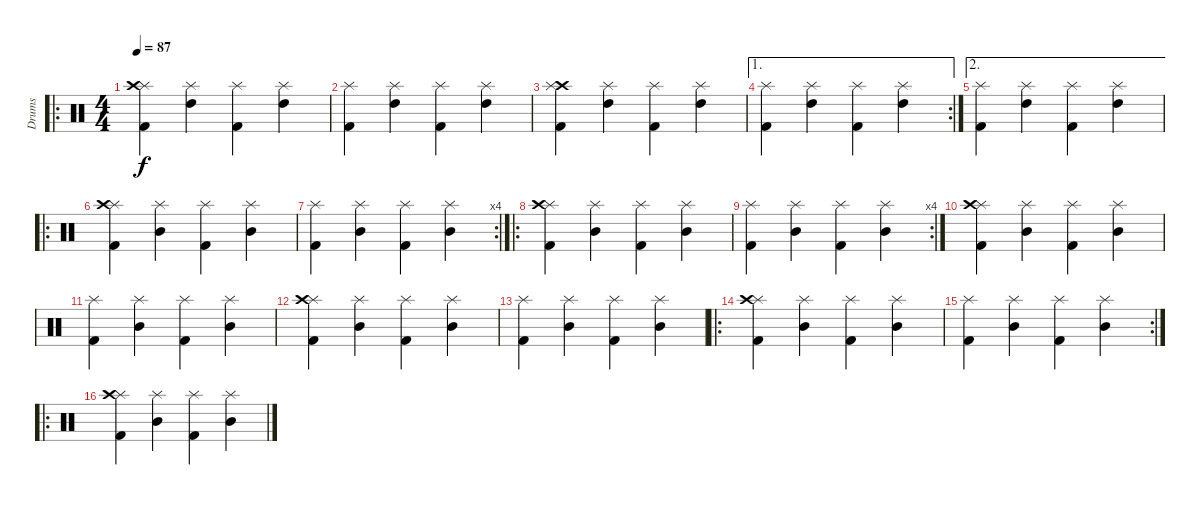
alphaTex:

\track ("Drums" "Drums") {instrument percussion}
\staff {score}
\articulation defaults
\ro
\ts (4 4)
\tempo 87
\clef neutral
\ks c
("Splash (hit)" "Crash high (hit)" "Kick (hit) 2").4{dy f} ("Splash (hit)" "High Tom (hit)").4 ("Splash (hit)" "Kick (hit) 2").4 ("Splash (hit)" "High Tom (hit)").4 |
("Splash (hit)" "Kick (hit) 2").4 ("Splash (hit)" "High Tom (hit)").4 ("Splash (hit)" "Kick (hit) 2").4 ("Splash (hit)" "High Tom (hit)").4 |
("Crash high (hit)" "Splash (hit)" "Kick (hit) 2").4 ("Splash (hit)" "High Tom (hit)").4 ("Splash (hit)" "Kick (hit) 2").4 ("Splash (hit)" "High Tom (hit)").4 |
\ae 1
\rc 2
("Splash (hit)" "Kick (hit) 2").4 ("Splash (hit)" "High Tom (hit)").4 ("Splash (hit)" "Kick (hit) 2").4 ("Splash (hit)" "High Tom (hit)").4 |
\ae 2
("Splash (hit)" "Kick (hit) 2").4 ("Splash (hit)" "High Tom (hit)").4 ("Splash (hit)" "Kick (hit) 2").4 ("Splash (hit)" "High Tom (hit)").4 |
\ro
("Splash (hit)" "Crash high (hit)" "Kick (hit) 2").4 ("Splash (hit)" "Mid Tom (hit)").4 ("Splash (hit)" "Kick (hit) 2").4 ("Splash (hit)" "Mid Tom (hit)").4 |
\rc 4
("Splash (hit)" "Kick (hit) 2").4 ("Splash (hit)" "Mid Tom (hit)").4 ("Splash (hit)" "Kick (hit) 2").4 ("Splash (hit)" "Mid Tom (hit)").4 |
\ro
("Splash (hit)" "Crash high (hit)" "Kick (hit) 2").4 ("Splash (hit)" "Mid Tom (hit)").4 ("Splash (hit)" "Kick (hit) 2").4 ("Splash (hit)" "Mid Tom (hit)").4 |
\rc 4
("Splash (hit)" "Kick (hit) 2").4 ("Splash (hit)" "Mid Tom (hit)").4 ("Splash (hit)" "Kick (hit) 2").4 ("Splash (hit)" "Mid Tom (hit)").4 |
("Splash (hit)" "Crash high (hit)" "Kick (hit) 2").4 ("Splash (hit)" "Mid Tom (hit)").4 ("Splash (hit)" "Kick (hit) 2").4 ("Splash (hit)" "Mid Tom (hit)").4 |
("Splash (hit)" "Kick (hit) 2").4 ("Splash (hit)" "Mid Tom (hit)").4 ("Splash (hit)" "Kick (hit) 2").4 ("Splash (hit)" "Mid Tom (hit)").4 |
("Splash (hit)" "Crash high (hit)" "Kick (hit) 2").4 ("Splash (hit)" "Mid Tom (hit)").4 ("Splash (hit)" "Kick (hit) 2").4 ("Splash (hit)" "Mid Tom (hit)").4 |
("Splash (hit)" "Kick (hit) 2").4 ("Splash (hit)" "Mid Tom (hit)").4 ("Splash (hit)" "Kick (hit) 2").4 ("Splash (hit)" "Mid Tom (hit)").4 |
\ro
("Splash (hit)" "Crash high (hit)" "Kick (hit) 2").4 ("Splash (hit)" "Mid Tom (hit)").4 ("Splash (hit)" "Kick (hit) 2").4 ("Splash (hit)" "Mid Tom (hit)").4 |
\rc 2
("Splash (hit)" "Kick (hit) 2").4 ("Splash (hit)" "Mid Tom (hit)").4 ("Splash (hit)" "Kick (hit) 2").4 ("Splash (hit)" "Mid Tom (hit)").4 |
\ro
("Splash (hit)" "Crash high (hit)" "Kick (hit) 2").4 ("Splash (hit)" "Mid Tom (hit)").4 ("Splash (hit)" "Kick (hit) 2").4 ("Splash (hit)" "Mid Tom (hit)").4
